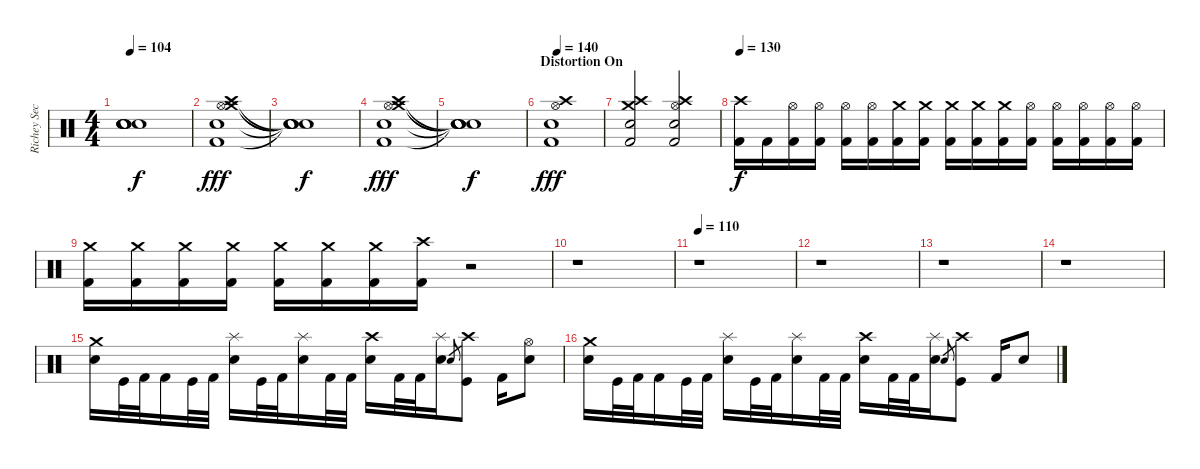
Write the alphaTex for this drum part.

\track ("Richey Secchiri" "Richey Sec") {instrument percussion}
\staff {score}
\articulation defaults
\ts (4 4)
\tempo 104
\clef neutral
\ks c
("Snare (hit)"{t} "Snare (hit)"{t} "Snare (hit)"{t} "Snare (hit)"{t} "Snare (hit)"{t}).1{dy f} |
("Crash high (hit)" "Hi-Hat (open)" "Crash medium (hit)" "Snare (hit) 2" "Kick (hit) 2").1{bd 30 dy fff} |
("Snare (hit)"{t} "Snare (hit)"{t} "Snare (hit)"{t} "Snare (hit)"{t} "Snare (hit)"{t}).1{dy f} |
("Hi-Hat (open)" "Crash medium (hit)" "Crash high (hit)" "Snare (hit) 2" "Kick (hit) 2").1{bd 30 dy fff} |
("Snare (hit)"{t} "Snare (hit)"{t} "Snare (hit)"{t} "Snare (hit)"{t} "Snare (hit)"{t}).1{dy f} |
\section ("" "Distortion On")
\tempo 140
("Crash high (hit)" "Hi-Hat (open)" "Snare (hit) 2" "Kick (hit) 2").1{bd 30 dy fff} |
("Crash high (hit)" "Crash medium (hit)" "Snare (hit) 2" "Kick (hit) 2").2{bd 30} ("Crash high (hit)" "Hi-Hat (open)" "Snare (hit) 2" "Kick (hit) 2").2{bu 30} |
\tempo 130
("Crash high (hit)" "Kick (hit) 2").16{dy f} "Kick (hit) 2".16 ("Hi-Hat (open)" "Kick (hit) 2").16 ("Hi-Hat (open)" "Kick (hit) 2").16 ("Hi-Hat (open)" "Kick (hit) 2").16 ("Hi-Hat (open)" "Kick (hit) 2").16 ("Crash medium (hit)" "Kick (hit) 2").16 ("Crash medium (hit)" "Kick (hit) 2").16 ("Crash medium (hit)" "Kick (hit) 2").16 ("Crash medium (hit)" "Kick (hit) 2").16 ("Crash medium (hit)" "Kick (hit) 2").16 ("Hi-Hat (open)" "Kick (hit) 2").16 ("Hi-Hat (open)" "Kick (hit) 2").16 ("Hi-Hat (open)" "Kick (hit) 2").16 ("Hi-Hat (open)" "Kick (hit) 2").16 ("Hi-Hat (open)" "Kick (hit) 2").16 |
("Crash medium (hit)" "Kick (hit) 2").16 ("Crash medium (hit)" "Kick (hit) 2").16 ("Crash medium (hit)" "Kick (hit) 2").16 ("Crash medium (hit)" "Kick (hit) 2").16 ("Crash medium (hit)" "Kick (hit) 2").16 ("Crash medium (hit)" "Kick (hit) 2").16 ("Crash medium (hit)" "Kick (hit) 2").16 ("Crash high (hit)" "Kick (hit) 2").16 r.2 |
r.1 |
\tempo 110
r.1 |
r.1 |
r.1 |
r.1 |
("Crash medium (hit)" "Snare (hit) 2").16 "Kick (hit)".32 "Kick (hit) 2".32 "Kick (hit) 2".16 "Kick (hit)".32 "Kick (hit) 2".32 ("Splash (hit)" "Snare (hit) 2").16 "Kick (hit)".32 "Kick (hit) 2".32 ("Splash (hit)" "Snare (hit) 2").16 "Kick (hit) 2".32 "Kick (hit) 2".32 ("Crash high (hit)" "Snare (hit) 2").16 "Kick (hit) 2".32 "Kick (hit) 2".32 ("Splash (hit)" "Snare (hit) 2").16 "Snare (hit) 2".8{gr} ("Crash high (hit)" "Kick (hit)").8 "Kick (hit) 2".16 ("Hi-Hat (open)" "Snare (hit) 2").8 |
("Crash medium (hit)" "Snare (hit) 2").16 "Kick (hit)".32 "Kick (hit) 2".32 "Kick (hit) 2".16 "Kick (hit)".32 "Kick (hit) 2".32 ("Splash (hit)" "Snare (hit) 2").16 "Kick (hit)".32 "Kick (hit) 2".32 ("Splash (hit)" "Snare (hit) 2").16 "Kick (hit) 2".32 "Kick (hit) 2".32 ("Crash high (hit)" "Snare (hit) 2").16 "Kick (hit) 2".32 "Kick (hit) 2".32 ("Splash (hit)" "Snare (hit) 2").16 "Snare (hit) 2".8{gr} ("Crash high (hit)" "Kick (hit)").8 "Kick (hit) 2".16 "Snare (hit) 2".8
